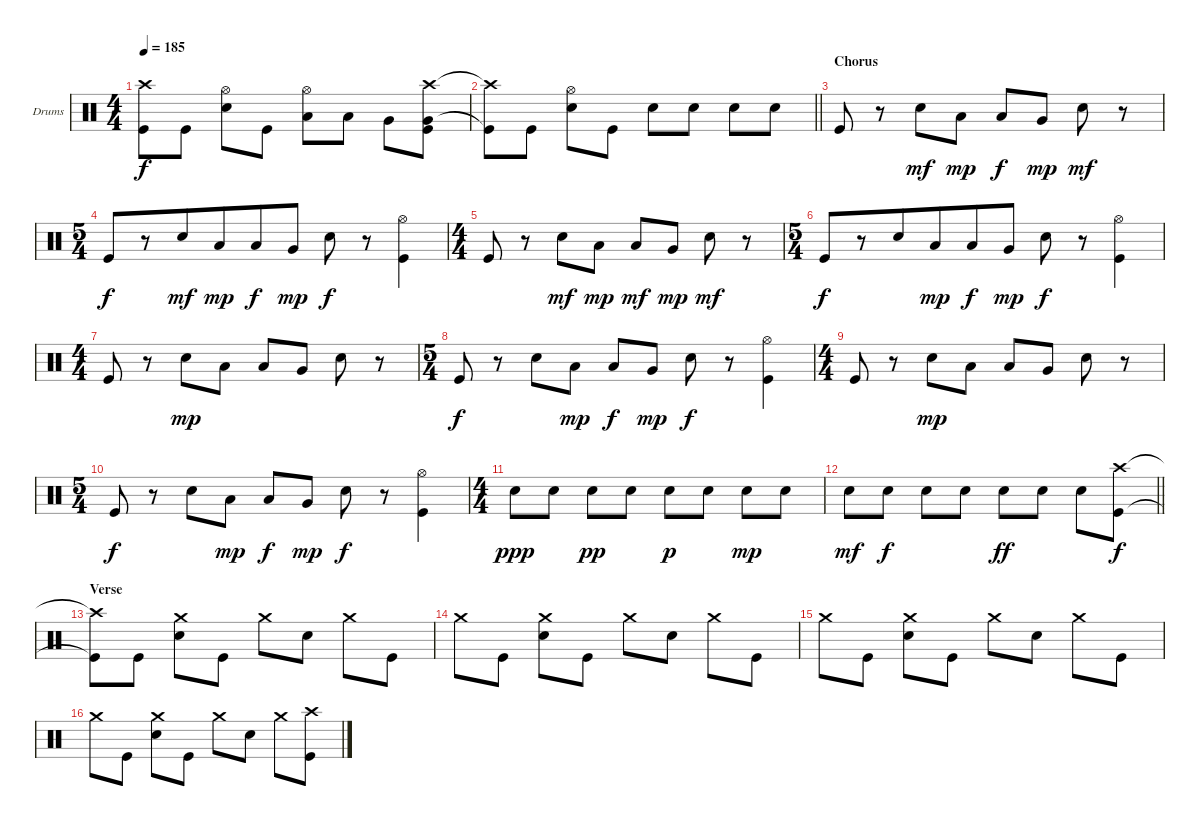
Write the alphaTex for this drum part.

\bracketExtendMode groupsimilarinstruments
\firstSystemTrackNameOrientation horizontal
\otherSystemsTrackNameOrientation horizontal
\track ("Drumkit" "Drums") {instrument percussion}
\staff {score}
\articulation defaults
\ts (4 4)
\tempo 185
\clef neutral
\ks c
("Crash high (hit)"{t} "Kick (hit)"{t}).8{dy f} "Kick (hit)".8 ("Hi-Hat (open)" "Snare (hit) 2").8 "Kick (hit)".8 ("Hi-Hat (open)" "Low Tom (hit)").8 "Low Tom (hit)".8 "Very Low Tom (hit)".8 ("Crash high (hit)" "Very Low Tom (hit)" "Kick (hit)").8 |
\barLineRight lightlight
("Crash high (hit)"{t} "Kick (hit)"{t}).8 "Kick (hit)".8 ("Hi-Hat (open)" "Snare (hit) 2").8 "Kick (hit)".8 "Snare (hit) 2".8 "Snare (hit) 2".8 "Snare (hit) 2".8 "Snare (hit) 2".8 |
\section ("" "Chorus")
"Kick (hit)".8 r.8 "Snare (hit) 2".8{dy mf} "Low Tom (hit)".8{dy mp} "Low Tom (hit)".8{dy f} "Very Low Tom (hit)".8{dy mp} "Snare (hit) 2".8{dy mf} r.8 |
\ts (5 4)
\beaming (8 6 4)
"Kick (hit)".8{dy f} r.8 "Snare (hit) 2".8{dy mf} "Low Tom (hit)".8{dy mp} "Low Tom (hit)".8{dy f} "Very Low Tom (hit)".8{dy mp} "Snare (hit) 2".8{dy f} r.8 ("Hi-Hat (open)" "Kick (hit)").4 |
\ts (4 4)
\beaming (8 2 2 2 2)
"Kick (hit)".8 r.8 "Snare (hit) 2".8{dy mf} "Low Tom (hit)".8{dy mp} "Low Tom (hit)".8{dy mf} "Very Low Tom (hit)".8{dy mp} "Snare (hit) 2".8{dy mf} r.8 |
\ts (5 4)
\beaming (8 6 4)
"Kick (hit)".8{dy f} r.8 "Snare (hit) 2".8 "Low Tom (hit)".8{dy mp} "Low Tom (hit)".8{dy f} "Very Low Tom (hit)".8{dy mp} "Snare (hit) 2".8{dy f} r.8 ("Hi-Hat (open)" "Kick (hit)").4 |
\ts (4 4)
\beaming (8 2 2 2 2)
"Kick (hit)".8 r.8 "Snare (hit) 2".8{dy mp} "Low Tom (hit)".8 "Low Tom (hit)".8 "Very Low Tom (hit)".8 "Snare (hit) 2".8 r.8 |
\ts (5 4)
\beaming (8 2 2 2 4)
"Kick (hit)".8{dy f} r.8 "Snare (hit) 2".8 "Low Tom (hit)".8{dy mp} "Low Tom (hit)".8{dy f} "Very Low Tom (hit)".8{dy mp} "Snare (hit) 2".8{dy f} r.8 ("Hi-Hat (open)" "Kick (hit)").4 |
\ts (4 4)
\beaming (8 2 2 2 2)
"Kick (hit)".8 r.8 "Snare (hit) 2".8{dy mp} "Low Tom (hit)".8 "Low Tom (hit)".8 "Very Low Tom (hit)".8 "Snare (hit) 2".8 r.8 |
\ts (5 4)
\beaming (8 2 2 2 4)
"Kick (hit)".8{dy f} r.8 "Snare (hit) 2".8 "Low Tom (hit)".8{dy mp} "Low Tom (hit)".8{dy f} "Very Low Tom (hit)".8{dy mp} "Snare (hit) 2".8{dy f} r.8 ("Hi-Hat (open)" "Kick (hit)").4 |
\ts (4 4)
\beaming (8 2 2 2 2)
"Snare (hit) 2".8{dy ppp} "Snare (hit) 2".8 "Snare (hit) 2".8{dy pp} "Snare (hit) 2".8 "Snare (hit) 2".8{dy p} "Snare (hit) 2".8 "Snare (hit) 2".8{dy mp} "Snare (hit) 2".8 |
\barLineRight lightlight "Snare (hit) 2".8{dy mf} "Snare (hit) 2".8{dy f} "Snare (hit) 2".8 "Snare (hit) 2".8 "Snare (hit) 2".8{dy ff} "Snare (hit) 2".8 "Snare (hit) 2".8
("Crash high (hit)" "Kick (hit)").8{dy f} |
\section ("" "Verse")
("Crash high (hit)"{t} "Kick (hit)"{t}).8 "Kick (hit)".8 ("Crash medium (hit)" "Snare (hit) 2").8 "Kick (hit)".8 "Crash medium (hit)".8 "Snare (hit) 2".8 "Crash medium (hit)".8 "Kick (hit)".8 |
"Crash medium (hit)".8 "Kick (hit)".8 ("Crash medium (hit)" "Snare (hit) 2").8 "Kick (hit)".8 "Crash medium (hit)".8 "Snare (hit) 2".8 "Crash medium (hit)".8 "Kick (hit)".8 |
"Crash medium (hit)".8 "Kick (hit)".8 ("Crash medium (hit)" "Snare (hit) 2").8 "Kick (hit)".8 "Crash medium (hit)".8 "Snare (hit) 2".8 "Crash medium (hit)".8 "Kick (hit)".8 |
"Crash medium (hit)".8 "Kick (hit)".8 ("Crash medium (hit)" "Snare (hit) 2").8 "Kick (hit)".8 "Crash medium (hit)".8 "Snare (hit) 2".8 "Crash medium (hit)".8 ("Crash high (hit)" "Kick (hit)").8
